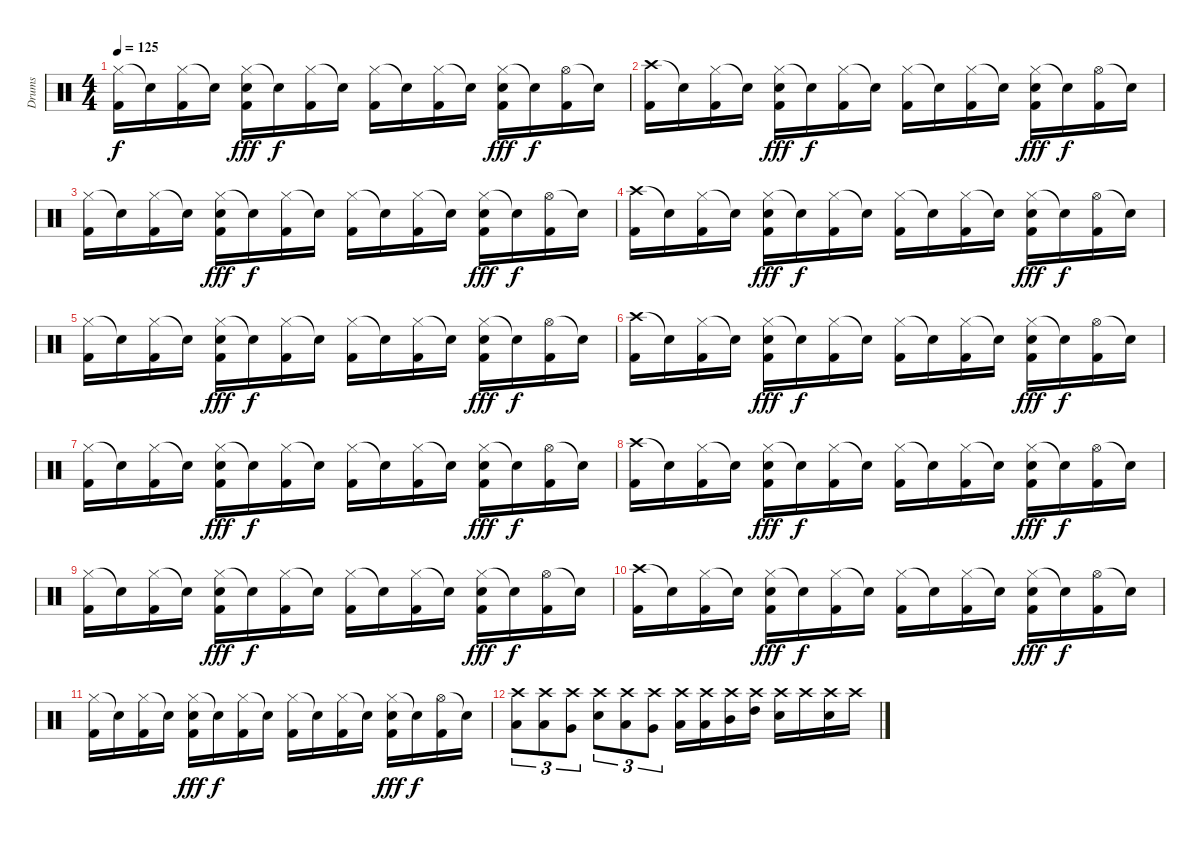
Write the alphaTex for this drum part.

\track ("Drums" "Drums") {instrument percussion}
\staff {score}
\articulation defaults
\ts (4 4)
\tempo 125
\clef neutral
\ks c
("Hi-Hat (closed)" "Kick (hit) 2").16{dy f} "Snare (hit)"{t}.16 ("Hi-Hat (closed)" "Kick (hit) 2").16 "Snare (hit)"{t}.16 ("Hi-Hat (closed)" "Electric Snare (hit)" "Kick (hit) 2").16{dy fff} "Snare (hit)"{t}.16{dy f} ("Hi-Hat (closed)" "Kick (hit) 2").16 "Snare (hit)"{t}.16 ("Hi-Hat (closed)" "Kick (hit) 2").16 "Snare (hit)"{t}.16 ("Hi-Hat (closed)" "Kick (hit) 2").16 "Snare (hit)"{t}.16 ("Hi-Hat (closed)" "Electric Snare (hit)" "Kick (hit) 2").16{dy fff} "Snare (hit)"{t}.16{dy f} ("Hi-Hat (open)" "Kick (hit) 2").16 "Snare (hit)"{t}.16 |
("Crash high (hit)" "Kick (hit) 2").16 "Snare (hit)"{t}.16 ("Hi-Hat (closed)" "Kick (hit) 2").16 "Snare (hit)"{t}.16 ("Hi-Hat (closed)" "Electric Snare (hit)" "Kick (hit) 2").16{dy fff} "Snare (hit)"{t}.16{dy f} ("Hi-Hat (closed)" "Kick (hit) 2").16 "Snare (hit)"{t}.16 ("Hi-Hat (closed)" "Kick (hit) 2").16 "Snare (hit)"{t}.16 ("Hi-Hat (closed)" "Kick (hit) 2").16 "Snare (hit)"{t}.16 ("Hi-Hat (closed)" "Electric Snare (hit)" "Kick (hit) 2").16{dy fff} "Snare (hit)"{t}.16{dy f} ("Hi-Hat (open)" "Kick (hit) 2").16 "Snare (hit)"{t}.16 |
("Hi-Hat (closed)" "Kick (hit) 2").16 "Snare (hit)"{t}.16 ("Hi-Hat (closed)" "Kick (hit) 2").16 "Snare (hit)"{t}.16 ("Hi-Hat (closed)" "Electric Snare (hit)" "Kick (hit) 2").16{dy fff} "Snare (hit)"{t}.16{dy f} ("Hi-Hat (closed)" "Kick (hit) 2").16 "Snare (hit)"{t}.16 ("Hi-Hat (closed)" "Kick (hit) 2").16 "Snare (hit)"{t}.16 ("Hi-Hat (closed)" "Kick (hit) 2").16 "Snare (hit)"{t}.16 ("Hi-Hat (closed)" "Electric Snare (hit)" "Kick (hit) 2").16{dy fff} "Snare (hit)"{t}.16{dy f} ("Hi-Hat (open)" "Kick (hit) 2").16 "Snare (hit)"{t}.16 |
("Crash high (hit)" "Kick (hit) 2").16 "Snare (hit)"{t}.16 ("Hi-Hat (closed)" "Kick (hit) 2").16 "Snare (hit)"{t}.16 ("Hi-Hat (closed)" "Electric Snare (hit)" "Kick (hit) 2").16{dy fff} "Snare (hit)"{t}.16{dy f} ("Hi-Hat (closed)" "Kick (hit) 2").16 "Snare (hit)"{t}.16 ("Hi-Hat (closed)" "Kick (hit) 2").16 "Snare (hit)"{t}.16 ("Hi-Hat (closed)" "Kick (hit) 2").16 "Snare (hit)"{t}.16 ("Hi-Hat (closed)" "Electric Snare (hit)" "Kick (hit) 2").16{dy fff} "Snare (hit)"{t}.16{dy f} ("Hi-Hat (open)" "Kick (hit) 2").16 "Snare (hit)"{t}.16 |
("Hi-Hat (closed)" "Kick (hit) 2").16 "Snare (hit)"{t}.16 ("Hi-Hat (closed)" "Kick (hit) 2").16 "Snare (hit)"{t}.16 ("Hi-Hat (closed)" "Electric Snare (hit)" "Kick (hit) 2").16{dy fff} "Snare (hit)"{t}.16{dy f} ("Hi-Hat (closed)" "Kick (hit) 2").16 "Snare (hit)"{t}.16 ("Hi-Hat (closed)" "Kick (hit) 2").16 "Snare (hit)"{t}.16 ("Hi-Hat (closed)" "Kick (hit) 2").16 "Snare (hit)"{t}.16 ("Hi-Hat (closed)" "Electric Snare (hit)" "Kick (hit) 2").16{dy fff} "Snare (hit)"{t}.16{dy f} ("Hi-Hat (open)" "Kick (hit) 2").16 "Snare (hit)"{t}.16 |
("Crash high (hit)" "Kick (hit) 2").16 "Snare (hit)"{t}.16 ("Hi-Hat (closed)" "Kick (hit) 2").16 "Snare (hit)"{t}.16 ("Hi-Hat (closed)" "Electric Snare (hit)" "Kick (hit) 2").16{dy fff} "Snare (hit)"{t}.16{dy f} ("Hi-Hat (closed)" "Kick (hit) 2").16 "Snare (hit)"{t}.16 ("Hi-Hat (closed)" "Kick (hit) 2").16 "Snare (hit)"{t}.16 ("Hi-Hat (closed)" "Kick (hit) 2").16 "Snare (hit)"{t}.16 ("Hi-Hat (closed)" "Electric Snare (hit)" "Kick (hit) 2").16{dy fff} "Snare (hit)"{t}.16{dy f} ("Hi-Hat (open)" "Kick (hit) 2").16 "Snare (hit)"{t}.16 |
("Hi-Hat (closed)" "Kick (hit) 2").16 "Snare (hit)"{t}.16 ("Hi-Hat (closed)" "Kick (hit) 2").16 "Snare (hit)"{t}.16 ("Hi-Hat (closed)" "Electric Snare (hit)" "Kick (hit) 2").16{dy fff} "Snare (hit)"{t}.16{dy f} ("Hi-Hat (closed)" "Kick (hit) 2").16 "Snare (hit)"{t}.16 ("Hi-Hat (closed)" "Kick (hit) 2").16 "Snare (hit)"{t}.16 ("Hi-Hat (closed)" "Kick (hit) 2").16 "Snare (hit)"{t}.16 ("Hi-Hat (closed)" "Electric Snare (hit)" "Kick (hit) 2").16{dy fff} "Snare (hit)"{t}.16{dy f} ("Hi-Hat (open)" "Kick (hit) 2").16 "Snare (hit)"{t}.16 |
("Crash high (hit)" "Kick (hit) 2").16 "Snare (hit)"{t}.16 ("Hi-Hat (closed)" "Kick (hit) 2").16 "Snare (hit)"{t}.16 ("Hi-Hat (closed)" "Electric Snare (hit)" "Kick (hit) 2").16{dy fff} "Snare (hit)"{t}.16{dy f} ("Hi-Hat (closed)" "Kick (hit) 2").16 "Snare (hit)"{t}.16 ("Hi-Hat (closed)" "Kick (hit) 2").16 "Snare (hit)"{t}.16 ("Hi-Hat (closed)" "Kick (hit) 2").16 "Snare (hit)"{t}.16 ("Hi-Hat (closed)" "Electric Snare (hit)" "Kick (hit) 2").16{dy fff} "Snare (hit)"{t}.16{dy f} ("Hi-Hat (open)" "Kick (hit) 2").16 "Snare (hit)"{t}.16 |
("Hi-Hat (closed)" "Kick (hit) 2").16 "Snare (hit)"{t}.16 ("Hi-Hat (closed)" "Kick (hit) 2").16 "Snare (hit)"{t}.16 ("Hi-Hat (closed)" "Electric Snare (hit)" "Kick (hit) 2").16{dy fff} "Snare (hit)"{t}.16{dy f} ("Hi-Hat (closed)" "Kick (hit) 2").16 "Snare (hit)"{t}.16 ("Hi-Hat (closed)" "Kick (hit) 2").16 "Snare (hit)"{t}.16 ("Hi-Hat (closed)" "Kick (hit) 2").16 "Snare (hit)"{t}.16 ("Hi-Hat (closed)" "Electric Snare (hit)" "Kick (hit) 2").16{dy fff} "Snare (hit)"{t}.16{dy f} ("Hi-Hat (open)" "Kick (hit) 2").16 "Snare (hit)"{t}.16 |
("Crash high (hit)" "Kick (hit) 2").16 "Snare (hit)"{t}.16 ("Hi-Hat (closed)" "Kick (hit) 2").16 "Snare (hit)"{t}.16 ("Hi-Hat (closed)" "Electric Snare (hit)" "Kick (hit) 2").16{dy fff} "Snare (hit)"{t}.16{dy f} ("Hi-Hat (closed)" "Kick (hit) 2").16 "Snare (hit)"{t}.16 ("Hi-Hat (closed)" "Kick (hit) 2").16 "Snare (hit)"{t}.16 ("Hi-Hat (closed)" "Kick (hit) 2").16 "Snare (hit)"{t}.16 ("Hi-Hat (closed)" "Electric Snare (hit)" "Kick (hit) 2").16{dy fff} "Snare (hit)"{t}.16{dy f} ("Hi-Hat (open)" "Kick (hit) 2").16 "Snare (hit)"{t}.16 |
("Hi-Hat (closed)" "Kick (hit) 2").16 "Snare (hit)"{t}.16 ("Hi-Hat (closed)" "Kick (hit) 2").16 "Snare (hit)"{t}.16 ("Hi-Hat (closed)" "Electric Snare (hit)" "Kick (hit) 2").16{dy fff} "Snare (hit)"{t}.16{dy f} ("Hi-Hat (closed)" "Kick (hit) 2").16 "Snare (hit)"{t}.16 ("Hi-Hat (closed)" "Kick (hit) 2").16 "Snare (hit)"{t}.16 ("Hi-Hat (closed)" "Kick (hit) 2").16 "Snare (hit)"{t}.16 ("Hi-Hat (closed)" "Electric Snare (hit)" "Kick (hit) 2").16{dy fff} "Snare (hit)"{t}.16{dy f} ("Hi-Hat (open)" "Kick (hit) 2").16 "Snare (hit)"{t}.16 |
("Crash high (hit)" "Low Floor Tom (hit)").8{tu (3 2)} ("Crash high (hit)" "Low Floor Tom (hit)").8{tu (3 2)} ("Crash high (hit)" "Very Low Tom (hit)").8{tu (3 2)} ("Crash high (hit)" "Electric Snare (hit)").8{tu (3 2)} ("Crash high (hit)" "Low Floor Tom (hit)").8{tu (3 2)} ("Crash high (hit)" "Very Low Tom (hit)").8{tu (3 2)} ("Crash high (hit)" "Low Tom (hit)").16 ("Crash high (hit)" "Low Floor Tom (hit)").16 ("Crash high (hit)" "Mid Tom (hit)").16 ("Crash high (hit)" "High Tom (hit)").16 ("Crash high (hit)" "Electric Snare (hit)").16 "Crash high (hit)".16 ("Crash high (hit)" "Electric Snare (hit)").16 "Crash high (hit)".16
